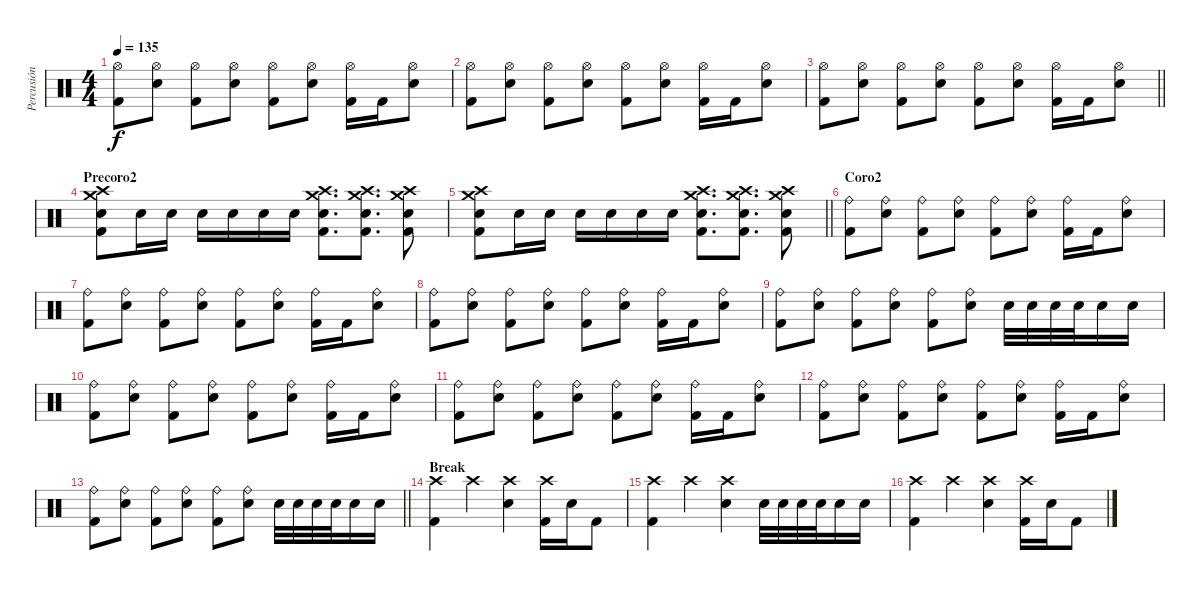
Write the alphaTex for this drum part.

\track ("Percusión" "Percusión") {instrument percussion}
\staff {score}
\articulation defaults
\ts (4 4)
\tempo 135
\clef neutral
\ks c
("Hi-Hat (open)" "Kick (hit) 2").8{dy f} ("Hi-Hat (open)" "Electric Snare (hit)").8 ("Hi-Hat (open)" "Kick (hit) 2").8 ("Hi-Hat (open)" "Electric Snare (hit)").8 ("Hi-Hat (open)" "Kick (hit) 2").8 ("Hi-Hat (open)" "Electric Snare (hit)").8 ("Hi-Hat (open)" "Kick (hit) 2").16 "Kick (hit) 2".16 ("Hi-Hat (open)" "Electric Snare (hit)").8 |
("Hi-Hat (open)" "Kick (hit) 2").8 ("Hi-Hat (open)" "Electric Snare (hit)").8 ("Hi-Hat (open)" "Kick (hit) 2").8 ("Hi-Hat (open)" "Electric Snare (hit)").8 ("Hi-Hat (open)" "Kick (hit) 2").8 ("Hi-Hat (open)" "Electric Snare (hit)").8 ("Hi-Hat (open)" "Kick (hit) 2").16 "Kick (hit) 2".16 ("Hi-Hat (open)" "Electric Snare (hit)").8 |
\barLineRight lightlight
("Hi-Hat (open)" "Kick (hit) 2").8 ("Hi-Hat (open)" "Electric Snare (hit)").8 ("Hi-Hat (open)" "Kick (hit) 2").8 ("Hi-Hat (open)" "Electric Snare (hit)").8 ("Hi-Hat (open)" "Kick (hit) 2").8 ("Hi-Hat (open)" "Electric Snare (hit)").8 ("Hi-Hat (open)" "Kick (hit) 2").16 "Kick (hit) 2".16 ("Hi-Hat (open)" "Electric Snare (hit)").8 |
\section ("" "Precoro2")
("Crash medium (hit)" "Crash high (hit)" "Electric Snare (hit)" "Kick (hit) 2").8 "Electric Snare (hit)".16 "Electric Snare (hit)".16 "Electric Snare (hit)".16 "Electric Snare (hit)".16 "Electric Snare (hit)".16 "Electric Snare (hit)".16 ("Crash medium (hit)" "Crash high (hit)" "Electric Snare (hit)" "Kick (hit) 2").8{d} ("Crash medium (hit)" "Crash high (hit)" "Electric Snare (hit)" "Kick (hit) 2").8{d} ("Crash medium (hit)" "Crash high (hit)" "Electric Snare (hit)" "Kick (hit) 2").8 |
\barLineRight lightlight
("Crash medium (hit)" "Crash high (hit)" "Electric Snare (hit)" "Kick (hit) 2").8 "Electric Snare (hit)".16 "Electric Snare (hit)".16 "Electric Snare (hit)".16 "Electric Snare (hit)".16 "Electric Snare (hit)".16 "Electric Snare (hit)".16 ("Crash medium (hit)" "Crash high (hit)" "Electric Snare (hit)" "Kick (hit) 2").8{d} ("Crash medium (hit)" "Crash high (hit)" "Electric Snare (hit)" "Kick (hit) 2").8{d} ("Crash medium (hit)" "Crash high (hit)" "Electric Snare (hit)" "Kick (hit) 2").8 |
\section ("" "Coro2")
("Ride (bell)" "Kick (hit) 2").8 ("Ride (bell)" "Electric Snare (hit)").8 ("Ride (bell)" "Kick (hit) 2").8 ("Ride (bell)" "Electric Snare (hit)").8 ("Ride (bell)" "Kick (hit) 2").8 ("Ride (bell)" "Electric Snare (hit)").8 ("Ride (bell)" "Kick (hit) 2").16 "Kick (hit) 2".16 ("Ride (bell)" "Electric Snare (hit)").8 |
("Ride (bell)" "Kick (hit) 2").8 ("Ride (bell)" "Electric Snare (hit)").8 ("Ride (bell)" "Kick (hit) 2").8 ("Ride (bell)" "Electric Snare (hit)").8 ("Ride (bell)" "Kick (hit) 2").8 ("Ride (bell)" "Electric Snare (hit)").8 ("Ride (bell)" "Kick (hit) 2").16 "Kick (hit) 2".16 ("Ride (bell)" "Electric Snare (hit)").8 |
("Ride (bell)" "Kick (hit) 2").8 ("Ride (bell)" "Electric Snare (hit)").8 ("Ride (bell)" "Kick (hit) 2").8 ("Ride (bell)" "Electric Snare (hit)").8 ("Ride (bell)" "Kick (hit) 2").8 ("Ride (bell)" "Electric Snare (hit)").8 ("Ride (bell)" "Kick (hit) 2").16 "Kick (hit) 2".16 ("Ride (bell)" "Electric Snare (hit)").8 |
("Ride (bell)" "Kick (hit) 2").8 ("Ride (bell)" "Electric Snare (hit)").8 ("Ride (bell)" "Kick (hit) 2").8 ("Ride (bell)" "Electric Snare (hit)").8 ("Ride (bell)" "Kick (hit) 2").8 ("Ride (bell)" "Electric Snare (hit)").8 "Electric Snare (hit)".32 "Electric Snare (hit)".32 "Electric Snare (hit)".32 "Electric Snare (hit)".32 "Electric Snare (hit)".16 "Electric Snare (hit)".16 |
("Ride (bell)" "Kick (hit) 2").8 ("Ride (bell)" "Electric Snare (hit)").8 ("Ride (bell)" "Kick (hit) 2").8 ("Ride (bell)" "Electric Snare (hit)").8 ("Ride (bell)" "Kick (hit) 2").8 ("Ride (bell)" "Electric Snare (hit)").8 ("Ride (bell)" "Kick (hit) 2").16 "Kick (hit) 2".16 ("Ride (bell)" "Electric Snare (hit)").8 |
("Ride (bell)" "Kick (hit) 2").8 ("Ride (bell)" "Electric Snare (hit)").8 ("Ride (bell)" "Kick (hit) 2").8 ("Ride (bell)" "Electric Snare (hit)").8 ("Ride (bell)" "Kick (hit) 2").8 ("Ride (bell)" "Electric Snare (hit)").8 ("Ride (bell)" "Kick (hit) 2").16 "Kick (hit) 2".16 ("Ride (bell)" "Electric Snare (hit)").8 |
("Ride (bell)" "Kick (hit) 2").8 ("Ride (bell)" "Electric Snare (hit)").8 ("Ride (bell)" "Kick (hit) 2").8 ("Ride (bell)" "Electric Snare (hit)").8 ("Ride (bell)" "Kick (hit) 2").8 ("Ride (bell)" "Electric Snare (hit)").8 ("Ride (bell)" "Kick (hit) 2").16 "Kick (hit) 2".16 ("Ride (bell)" "Electric Snare (hit)").8 |
\barLineRight lightlight
("Ride (bell)" "Kick (hit) 2").8 ("Ride (bell)" "Electric Snare (hit)").8 ("Ride (bell)" "Kick (hit) 2").8 ("Ride (bell)" "Electric Snare (hit)").8 ("Ride (bell)" "Kick (hit) 2").8 ("Ride (bell)" "Electric Snare (hit)").8 "Electric Snare (hit)".32 "Electric Snare (hit)".32 "Electric Snare (hit)".32 "Electric Snare (hit)".32 "Electric Snare (hit)".16 "Electric Snare (hit)".16 |
\section ("" "Break")
("Crash high (hit)" "Kick (hit) 2").4 "Crash high (hit)".4 ("Crash high (hit)" "Electric Snare (hit)").4 ("Crash high (hit)" "Kick (hit) 2").16 "Electric Snare (hit)".16 "Kick (hit) 2".8 |
("Crash high (hit)" "Kick (hit) 2").4 "Crash high (hit)".4 ("Crash high (hit)" "Electric Snare (hit)").4 "Electric Snare (hit)".32 "Electric Snare (hit)".32 "Electric Snare (hit)".32 "Electric Snare (hit)".32 "Electric Snare (hit)".16 "Electric Snare (hit)".16 |
("Crash high (hit)" "Kick (hit) 2").4 "Crash high (hit)".4 ("Crash high (hit)" "Electric Snare (hit)").4 ("Crash high (hit)" "Kick (hit) 2").16 "Electric Snare (hit)".16 "Kick (hit) 2".8
